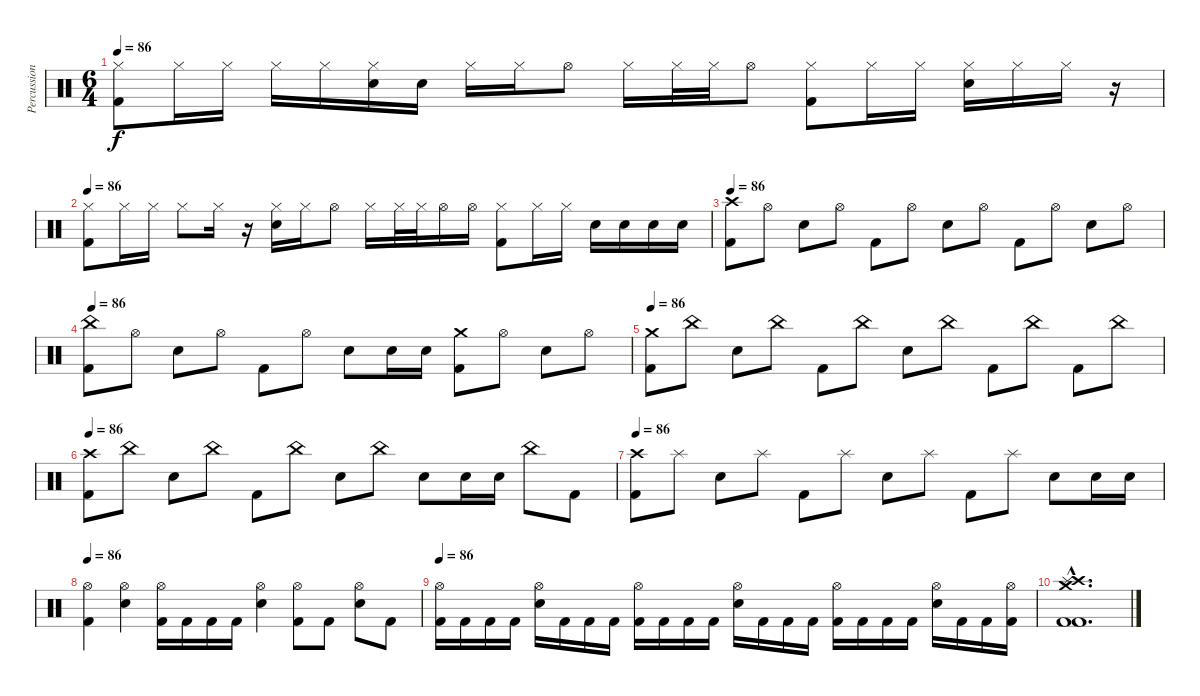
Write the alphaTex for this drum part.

\track ("Percussion" "Percussion") {instrument percussion}
\staff {score}
\articulation defaults
\ts (6 4)
\tempo 86
\clef neutral
\ks c
("Hi-Hat (closed)" "Kick (hit) 2").8{dy f} "Hi-Hat (closed)".16 "Hi-Hat (closed)".16 "Hi-Hat (closed)".16 "Hi-Hat (closed)".16 ("Hi-Hat (closed)" "Electric Snare (hit)").16 "Electric Snare (hit)".16 "Hi-Hat (closed)".16 "Hi-Hat (closed)".16 "Hi-Hat (open)".8 "Hi-Hat (closed)".16 "Hi-Hat (closed)".32 "Hi-Hat (closed)".32 "Hi-Hat (open)".8 ("Hi-Hat (closed)" "Kick (hit) 2").8 "Hi-Hat (closed)".16 "Hi-Hat (closed)".16 ("Hi-Hat (closed)" "Electric Snare (hit)").16 "Hi-Hat (closed)".16 "Hi-Hat (closed)".16 r.16 |
\tempo 86
("Hi-Hat (closed)" "Kick (hit) 2").8 "Hi-Hat (closed)".16 "Hi-Hat (closed)".16 "Hi-Hat (closed)".8 "Hi-Hat (closed)".16 r.16 ("Hi-Hat (closed)" "Electric Snare (hit)").16 "Hi-Hat (closed)".16 "Hi-Hat (open)".8 "Hi-Hat (closed)".16 "Hi-Hat (closed)".32 "Hi-Hat (closed)".32 "Hi-Hat (open)".16 "Hi-Hat (open)".16 ("Hi-Hat (closed)" "Kick (hit) 2").8 "Hi-Hat (closed)".16 "Hi-Hat (closed)".16 "Electric Snare (hit)".16 "Electric Snare (hit)".16 "Electric Snare (hit)".16 "Electric Snare (hit)".16 |
\tempo 86
("Crash high (hit)" "Kick (hit) 2").8 "Hi-Hat (open)".8 "Electric Snare (hit)".8 "Hi-Hat (open)".8 "Kick (hit) 2".8 "Hi-Hat (open)".8 "Electric Snare (hit)".8 "Hi-Hat (open)".8 "Kick (hit) 2".8 "Hi-Hat (open)".8 "Electric Snare (hit)".8 "Hi-Hat (open)".8 |
\tempo 86
("China (hit)" "Kick (hit) 2").8 "Hi-Hat (open)".8 "Electric Snare (hit)".8 "Hi-Hat (open)".8 "Kick (hit) 2".8 "Hi-Hat (open)".8 "Electric Snare (hit)".8 "Electric Snare (hit)".16 "Electric Snare (hit)".16 ("Crash medium (hit)" "Kick (hit) 2").8 "Hi-Hat (open)".8 "Electric Snare (hit)".8 "Hi-Hat (open)".8 |
\tempo 86
("Crash medium (hit)" "Kick (hit) 2").8 "China (hit)".8 "Electric Snare (hit)".8 "China (hit)".8 "Kick (hit) 2".8 "China (hit)".8 "Electric Snare (hit)".8 "China (hit)".8 "Kick (hit) 2".8 "China (hit)".8 "Kick (hit) 2".8 "China (hit)".8 |
\tempo 86
("Crash high (hit)" "Kick (hit) 2").8 "China (hit)".8 "Electric Snare (hit)".8 "China (hit)".8 "Kick (hit) 2".8 "China (hit)".8 "Electric Snare (hit)".8 "China (hit)".8 "Electric Snare (hit)".8 "Electric Snare (hit)".16 "Electric Snare (hit)".16 "China (hit)".8 "Kick (hit) 2".8 |
\tempo 86
("Crash high (hit)" "Kick (hit) 2").8 "Splash (hit)".8 "Electric Snare (hit)".8 "Splash (hit)".8 "Kick (hit) 2".8 "Splash (hit)".8 "Electric Snare (hit)".8 "Splash (hit)".8 "Kick (hit) 2".8 "Splash (hit)".8 "Electric Snare (hit)".8 "Electric Snare (hit)".16 "Electric Snare (hit)".16 |
\tempo 86
("Hi-Hat (open)" "Kick (hit) 2").4 ("Hi-Hat (open)" "Electric Snare (hit)").4 ("Hi-Hat (open)" "Kick (hit) 2").16 "Kick (hit) 2".16 "Kick (hit) 2".16 "Kick (hit) 2".16 ("Hi-Hat (open)" "Electric Snare (hit)").4 ("Hi-Hat (open)" "Kick (hit) 2").8 "Kick (hit) 2".8 ("Hi-Hat (open)" "Electric Snare (hit)").8 "Kick (hit) 2".8 |
\tempo 86
("Hi-Hat (open)" "Kick (hit) 2").16 "Kick (hit) 2".16 "Kick (hit) 2".16 "Kick (hit) 2".16 ("Hi-Hat (open)" "Electric Snare (hit)").16 "Kick (hit) 2".16 "Kick (hit) 2".16 "Kick (hit) 2".16 ("Hi-Hat (open)" "Kick (hit) 2").16 "Kick (hit) 2".16 "Kick (hit) 2".16 "Kick (hit) 2".16 ("Hi-Hat (open)" "Electric Snare (hit)").16 "Kick (hit) 2".16 "Kick (hit) 2".16 "Kick (hit) 2".16 ("Hi-Hat (open)" "Kick (hit) 2").16 "Kick (hit) 2".16 "Kick (hit) 2".16 "Kick (hit) 2".16 ("Hi-Hat (open)" "Electric Snare (hit)").16 "Kick (hit) 2".16 "Kick (hit) 2".16 ("Hi-Hat (open)" "Kick (hit) 2").16 |
("Crash high (hit)"{hac} "Splash (hit)"{hac} "Crash medium (hit)"{hac} "Kick (hit) 2"{hac} "Kick (hit) 2"{hac}).1{d}
